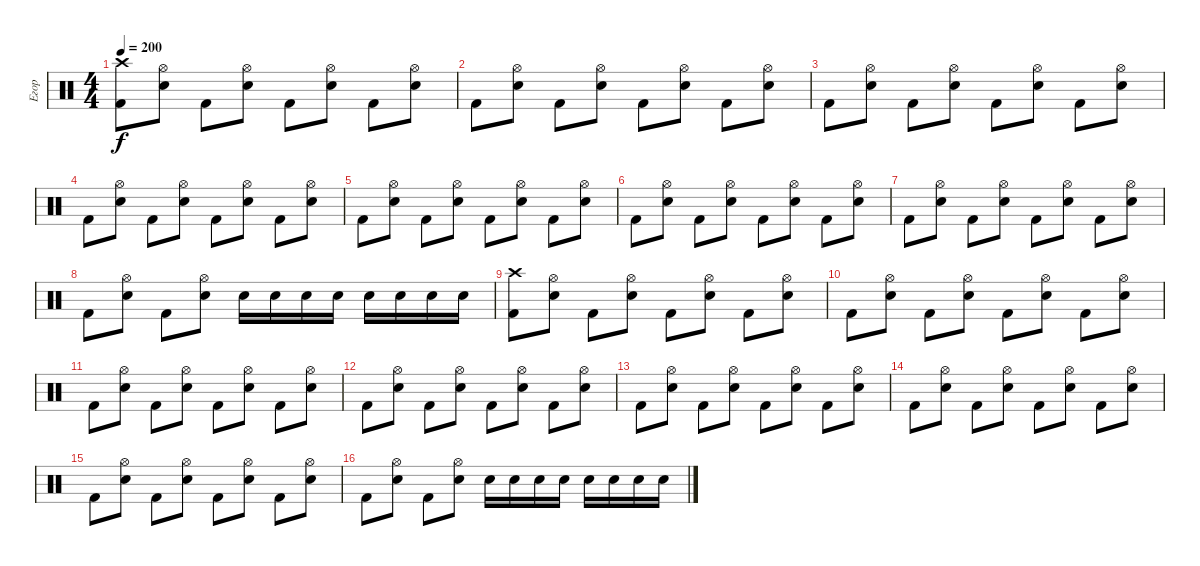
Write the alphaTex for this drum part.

\track ("Егор" "Егор") {instrument percussion}
\staff {score}
\articulation defaults
\ts (4 4)
\tempo 200
\clef neutral
\ks c
("Crash high (hit)" "Kick (hit) 2").8{dy f} ("Hi-Hat (open)" "Snare (hit) 2").8 "Kick (hit) 2".8 ("Hi-Hat (open)" "Snare (hit) 2").8 "Kick (hit) 2".8 ("Hi-Hat (open)" "Snare (hit) 2").8 "Kick (hit) 2".8 ("Hi-Hat (open)" "Snare (hit) 2").8 |
"Kick (hit) 2".8 ("Hi-Hat (open)" "Snare (hit) 2").8 "Kick (hit) 2".8 ("Hi-Hat (open)" "Snare (hit) 2").8 "Kick (hit) 2".8 ("Hi-Hat (open)" "Snare (hit) 2").8 "Kick (hit) 2".8 ("Hi-Hat (open)" "Snare (hit) 2").8 |
"Kick (hit) 2".8 ("Hi-Hat (open)" "Snare (hit) 2").8 "Kick (hit) 2".8 ("Hi-Hat (open)" "Snare (hit) 2").8 "Kick (hit) 2".8 ("Hi-Hat (open)" "Snare (hit) 2").8 "Kick (hit) 2".8 ("Hi-Hat (open)" "Snare (hit) 2").8 |
"Kick (hit) 2".8 ("Hi-Hat (open)" "Snare (hit) 2").8 "Kick (hit) 2".8 ("Hi-Hat (open)" "Snare (hit) 2").8 "Kick (hit) 2".8 ("Hi-Hat (open)" "Snare (hit) 2").8 "Kick (hit) 2".8 ("Hi-Hat (open)" "Snare (hit) 2").8 |
"Kick (hit) 2".8 ("Hi-Hat (open)" "Snare (hit) 2").8 "Kick (hit) 2".8 ("Hi-Hat (open)" "Snare (hit) 2").8 "Kick (hit) 2".8 ("Hi-Hat (open)" "Snare (hit) 2").8 "Kick (hit) 2".8 ("Hi-Hat (open)" "Snare (hit) 2").8 |
"Kick (hit) 2".8 ("Hi-Hat (open)" "Snare (hit) 2").8 "Kick (hit) 2".8 ("Hi-Hat (open)" "Snare (hit) 2").8 "Kick (hit) 2".8 ("Hi-Hat (open)" "Snare (hit) 2").8 "Kick (hit) 2".8 ("Hi-Hat (open)" "Snare (hit) 2").8 |
"Kick (hit) 2".8 ("Hi-Hat (open)" "Snare (hit) 2").8 "Kick (hit) 2".8 ("Hi-Hat (open)" "Snare (hit) 2").8 "Kick (hit) 2".8 ("Hi-Hat (open)" "Snare (hit) 2").8 "Kick (hit) 2".8 ("Hi-Hat (open)" "Snare (hit) 2").8 |
"Kick (hit) 2".8 ("Hi-Hat (open)" "Snare (hit) 2").8 "Kick (hit) 2".8 ("Hi-Hat (open)" "Snare (hit) 2").8 "Snare (hit) 2".16 "Snare (hit) 2".16 "Snare (hit) 2".16 "Snare (hit) 2".16 "Snare (hit) 2".16 "Snare (hit) 2".16 "Snare (hit) 2".16 "Snare (hit) 2".16 |
("Crash high (hit)" "Kick (hit) 2").8 ("Hi-Hat (open)" "Snare (hit) 2").8 "Kick (hit) 2".8 ("Hi-Hat (open)" "Snare (hit) 2").8 "Kick (hit) 2".8 ("Hi-Hat (open)" "Snare (hit) 2").8 "Kick (hit) 2".8 ("Hi-Hat (open)" "Snare (hit) 2").8 |
"Kick (hit) 2".8 ("Hi-Hat (open)" "Snare (hit) 2").8 "Kick (hit) 2".8 ("Hi-Hat (open)" "Snare (hit) 2").8 "Kick (hit) 2".8 ("Hi-Hat (open)" "Snare (hit) 2").8 "Kick (hit) 2".8 ("Hi-Hat (open)" "Snare (hit) 2").8 |
"Kick (hit) 2".8 ("Hi-Hat (open)" "Snare (hit) 2").8 "Kick (hit) 2".8 ("Hi-Hat (open)" "Snare (hit) 2").8 "Kick (hit) 2".8 ("Hi-Hat (open)" "Snare (hit) 2").8 "Kick (hit) 2".8 ("Hi-Hat (open)" "Snare (hit) 2").8 |
"Kick (hit) 2".8 ("Hi-Hat (open)" "Snare (hit) 2").8 "Kick (hit) 2".8 ("Hi-Hat (open)" "Snare (hit) 2").8 "Kick (hit) 2".8 ("Hi-Hat (open)" "Snare (hit) 2").8 "Kick (hit) 2".8 ("Hi-Hat (open)" "Snare (hit) 2").8 |
"Kick (hit) 2".8 ("Hi-Hat (open)" "Snare (hit) 2").8 "Kick (hit) 2".8 ("Hi-Hat (open)" "Snare (hit) 2").8 "Kick (hit) 2".8 ("Hi-Hat (open)" "Snare (hit) 2").8 "Kick (hit) 2".8 ("Hi-Hat (open)" "Snare (hit) 2").8 |
"Kick (hit) 2".8 ("Hi-Hat (open)" "Snare (hit) 2").8 "Kick (hit) 2".8 ("Hi-Hat (open)" "Snare (hit) 2").8 "Kick (hit) 2".8 ("Hi-Hat (open)" "Snare (hit) 2").8 "Kick (hit) 2".8 ("Hi-Hat (open)" "Snare (hit) 2").8 |
"Kick (hit) 2".8 ("Hi-Hat (open)" "Snare (hit) 2").8 "Kick (hit) 2".8 ("Hi-Hat (open)" "Snare (hit) 2").8 "Kick (hit) 2".8 ("Hi-Hat (open)" "Snare (hit) 2").8 "Kick (hit) 2".8 ("Hi-Hat (open)" "Snare (hit) 2").8 |
"Kick (hit) 2".8 ("Hi-Hat (open)" "Snare (hit) 2").8 "Kick (hit) 2".8 ("Hi-Hat (open)" "Snare (hit) 2").8 "Snare (hit) 2".16 "Snare (hit) 2".16 "Snare (hit) 2".16 "Snare (hit) 2".16 "Snare (hit) 2".16 "Snare (hit) 2".16 "Snare (hit) 2".16 "Snare (hit) 2".16
